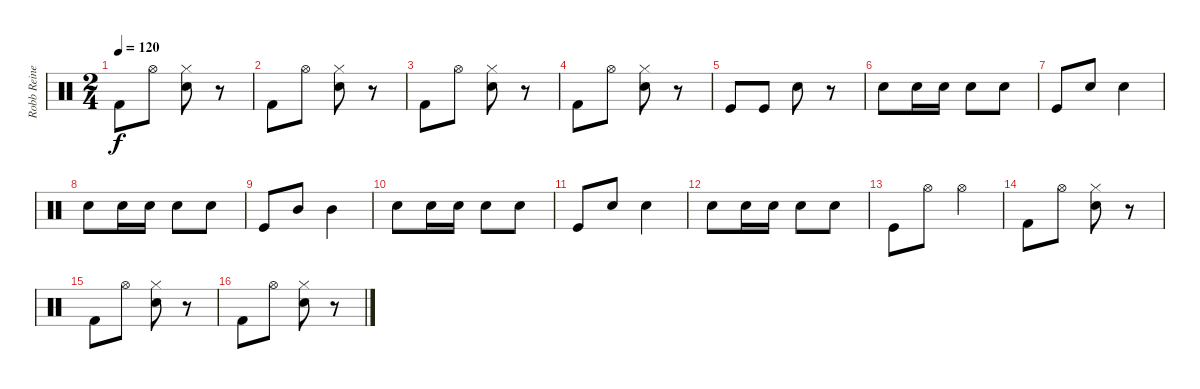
\track ("Robb Reiner" "Robb Reine") {instrument percussion}
\staff {score}
\articulation defaults
\ts (2 4)
\tempo 120
\clef neutral
\ks c "Kick (hit) 2".8{dy f} "Hi-Hat (open)".8
("Hi-Hat (closed)" "Snare (hit) 2").8 r.8 |
"Kick (hit) 2".8 "Hi-Hat (open)".8 ("Hi-Hat (closed)" "Snare (hit) 2").8 r.8 |
"Kick (hit) 2".8 "Hi-Hat (open)".8 ("Hi-Hat (closed)" "Snare (hit) 2").8 r.8 |
"Kick (hit) 2".8 "Hi-Hat (open)".8 ("Hi-Hat (closed)" "Snare (hit) 2").8 r.8 |
"Kick (hit)".8 "Kick (hit)".8 "Snare (hit) 2".8 r.8 |
"Snare (hit) 2".8 "Snare (hit) 2".16 "Snare (hit) 2".16 "Snare (hit) 2".8 "Snare (hit) 2".8 |
"Kick (hit)".8 "Snare (hit) 2".8 "Snare (hit) 2".4 |
"Snare (hit) 2".8 "Snare (hit) 2".16 "Snare (hit) 2".16 "Snare (hit) 2".8 "Snare (hit) 2".8 |
"Kick (hit)".8 "Mid Tom (hit)".8 "Mid Tom (hit)".4 |
"Snare (hit) 2".8 "Snare (hit) 2".16 "Snare (hit) 2".16 "Snare (hit) 2".8 "Snare (hit) 2".8 |
"Kick (hit)".8 "Snare (hit) 2".8 "Snare (hit) 2".4 |
"Snare (hit) 2".8 "Snare (hit) 2".16 "Snare (hit) 2".16 "Snare (hit) 2".8 "Snare (hit) 2".8 |
"Kick (hit)".8 "Hi-Hat (open)".8 "Hi-Hat (open)".4 |
"Kick (hit) 2".8 "Hi-Hat (open)".8 ("Hi-Hat (closed)" "Snare (hit) 2").8 r.8 |
"Kick (hit) 2".8 "Hi-Hat (open)".8 ("Hi-Hat (closed)" "Snare (hit) 2").8 r.8 |
"Kick (hit) 2".8 "Hi-Hat (open)".8 ("Hi-Hat (closed)" "Snare (hit) 2").8 r.8
